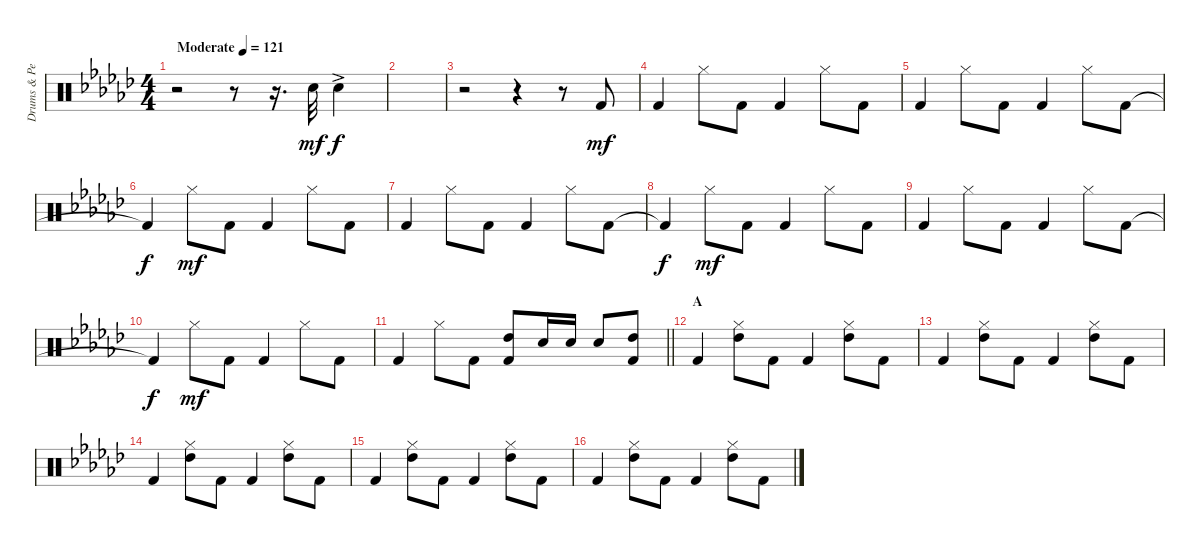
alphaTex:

\track ("Drums & Percussion" "Drums & Pe") {instrument percussion bank 98}
\staff {score}
\articulation defaults
\ts (4 4)
\tempo (121 "Moderate")
\clef neutral
\ks ebminor
r.2{dy mf} r.8 r.16{d} "Snare (hit) 2".32 "Snare (hit) 2"{ac}.4{dy f} |
|
r.2 r.4 r.8 "Kick (hit) 2".8{dy mf} |
"Kick (hit) 2".4 "Hi-Hat (closed)".8 "Kick (hit) 2".8 "Kick (hit) 2".4 "Hi-Hat (closed)".8 "Kick (hit) 2".8 |
"Kick (hit) 2".4 "Hi-Hat (closed)".8 "Kick (hit) 2".8 "Kick (hit) 2".4 "Hi-Hat (closed)".8 "Kick (hit) 2".8 |
"Kick (hit) 2"{t}.4{dy f} "Hi-Hat (closed)".8{dy mf} "Kick (hit) 2".8 "Kick (hit) 2".4 "Hi-Hat (closed)".8 "Kick (hit) 2".8 |
"Kick (hit) 2".4 "Hi-Hat (closed)".8 "Kick (hit) 2".8 "Kick (hit) 2".4 "Hi-Hat (closed)".8 "Kick (hit) 2".8 |
"Kick (hit) 2"{t}.4{dy f} "Hi-Hat (closed)".8{dy mf} "Kick (hit) 2".8 "Kick (hit) 2".4 "Hi-Hat (closed)".8 "Kick (hit) 2".8 |
"Kick (hit) 2".4 "Hi-Hat (closed)".8 "Kick (hit) 2".8 "Kick (hit) 2".4 "Hi-Hat (closed)".8 "Kick (hit) 2".8 |
"Kick (hit) 2"{t}.4{dy f} "Hi-Hat (closed)".8{dy mf} "Kick (hit) 2".8 "Kick (hit) 2".4 "Hi-Hat (closed)".8 "Kick (hit) 2".8 |
\barLineRight lightlight "Kick (hit) 2".4 "Hi-Hat (closed)".8 "Kick (hit) 2".8
("High Tom (hit)" "Kick (hit) 2").8 "Snare (hit) 2".16 "Snare (hit) 2".16 "Snare (hit) 2".8 ("High Tom (hit)" "Kick (hit) 2").8 |
\section ("" "A")
"Kick (hit) 2".4 ("Hi-Hat (closed)" "High Tom (hit)").8 "Kick (hit) 2".8 "Kick (hit) 2".4 ("Hi-Hat (closed)" "High Tom (hit)").8 "Kick (hit) 2".8 |
"Kick (hit) 2".4 ("Hi-Hat (closed)" "High Tom (hit)").8 "Kick (hit) 2".8 "Kick (hit) 2".4 ("Hi-Hat (closed)" "High Tom (hit)").8 "Kick (hit) 2".8 |
"Kick (hit) 2".4 ("Hi-Hat (closed)" "High Tom (hit)").8 "Kick (hit) 2".8 "Kick (hit) 2".4 ("Hi-Hat (closed)" "High Tom (hit)").8 "Kick (hit) 2".8 |
"Kick (hit) 2".4 ("Hi-Hat (closed)" "High Tom (hit)").8 "Kick (hit) 2".8 "Kick (hit) 2".4 ("Hi-Hat (closed)" "High Tom (hit)").8 "Kick (hit) 2".8 |
"Kick (hit) 2".4 ("Hi-Hat (closed)" "High Tom (hit)").8 "Kick (hit) 2".8 "Kick (hit) 2".4 ("Hi-Hat (closed)" "High Tom (hit)").8 "Kick (hit) 2".8
